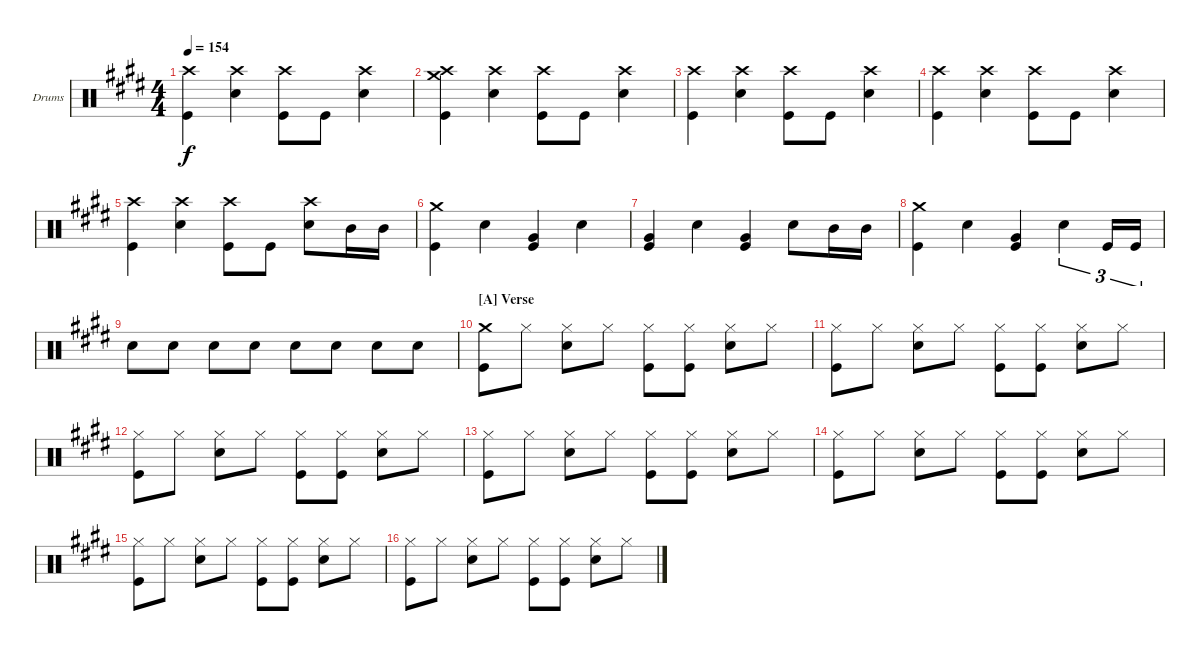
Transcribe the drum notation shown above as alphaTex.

\defaultSystemsLayout 4
\bracketExtendMode groupsimilarinstruments
\firstSystemTrackNameOrientation horizontal
\otherSystemsTrackNameOrientation horizontal
\track ("Jon Larsen" "Drums") {instrument percussion}
\staff {score}
\articulation defaults
\ts (4 4)
\tempo 154
\clef neutral
\scale
0.333333
\ks e
("Crash high (hit)" "Kick (hit)").4{dy f} ("Crash high (hit)" "Snare (hit) 2").4 ("Crash high (hit)" "Kick (hit)").8 "Kick (hit)".8 ("Crash high (hit)" "Snare (hit) 2").4 |
\scale
0.333333 ("Crash medium (hit)" "Crash high (hit)" "Kick (hit)").4 ("Crash high (hit)" "Snare (hit) 2").4 ("Crash high (hit)" "Kick (hit)").8 "Kick (hit)".8 ("Crash high (hit)" "Snare (hit) 2").4 |
\scale
0.333333 ("Crash high (hit)" "Kick (hit)").4 ("Crash high (hit)" "Snare (hit) 2").4 ("Crash high (hit)" "Kick (hit)").8 "Kick (hit)".8 ("Crash high (hit)" "Snare (hit) 2").4 |
\scale
0.333333 ("Crash high (hit)" "Kick (hit)").4 ("Crash high (hit)" "Snare (hit) 2").4 ("Crash high (hit)" "Kick (hit)").8 "Kick (hit)".8 ("Crash high (hit)" "Snare (hit) 2").4 |
\scale
0.333333 ("Crash high (hit)" "Kick (hit)").4 ("Crash high (hit)" "Snare (hit) 2").4 ("Crash high (hit)" "Kick (hit)").8 "Kick (hit)".8 ("Crash high (hit)" "Snare (hit) 2").8 "Mid Tom (hit)".16 "Mid Tom (hit)".16 |
\scale
0.333333 ("Crash medium (hit)" "Kick (hit)").4 "Snare (hit) 2".4 ("Very Low Tom (hit)" "Kick (hit)").4 "Snare (hit) 2".4 |
\scale
0.333333 ("Very Low Tom (hit)" "Kick (hit)").4 "Snare (hit) 2".4 ("Very Low Tom (hit)" "Kick (hit)").4 "Snare (hit) 2".8 "Mid Tom (hit)".16 "Mid Tom (hit)".16 |
\scale
0.333333 ("Crash medium (hit)" "Kick (hit)").4 "Snare (hit) 2".4 ("Very Low Tom (hit)" "Kick (hit)").4 "Snare (hit) 2".4{tu (3 2)} "Kick (hit)".16{tu (3 2)} "Kick (hit)".16{tu (3 2)} |
\scale
0.333333 "Snare (hit) 2".8 "Snare (hit) 2".8 "Snare (hit) 2".8 "Snare (hit) 2".8 "Snare (hit) 2".8 "Snare (hit) 2".8 "Snare (hit) 2".8 "Snare (hit) 2".8 |
\section ("A" "Verse")
\scale
0.333333 ("Crash medium (hit)" "Kick (hit)").8 "Hi-Hat (closed)".8 ("Hi-Hat (closed)" "Snare (hit) 2").8 "Hi-Hat (closed)".8 ("Hi-Hat (closed)" "Kick (hit)").8 ("Hi-Hat (closed)" "Kick (hit)").8 ("Hi-Hat (closed)" "Snare (hit) 2").8 "Hi-Hat (closed)".8 |
\scale
0.333333 ("Hi-Hat (closed)" "Kick (hit)").8 "Hi-Hat (closed)".8 ("Hi-Hat (closed)" "Snare (hit) 2").8 "Hi-Hat (closed)".8 ("Hi-Hat (closed)" "Kick (hit)").8 ("Hi-Hat (closed)" "Kick (hit)").8 ("Hi-Hat (closed)" "Snare (hit) 2").8 "Hi-Hat (closed)".8 |
\scale
0.333333 ("Hi-Hat (closed)" "Kick (hit)").8 "Hi-Hat (closed)".8 ("Hi-Hat (closed)" "Snare (hit) 2").8 "Hi-Hat (closed)".8 ("Hi-Hat (closed)" "Kick (hit)").8 ("Hi-Hat (closed)" "Kick (hit)").8 ("Hi-Hat (closed)" "Snare (hit) 2").8 "Hi-Hat (closed)".8 |
\scale
0.333333 ("Hi-Hat (closed)" "Kick (hit)").8 "Hi-Hat (closed)".8 ("Hi-Hat (closed)" "Snare (hit) 2").8 "Hi-Hat (closed)".8 ("Hi-Hat (closed)" "Kick (hit)").8 ("Hi-Hat (closed)" "Kick (hit)").8 ("Hi-Hat (closed)" "Snare (hit) 2").8 "Hi-Hat (closed)".8 |
\scale
0.333333 ("Hi-Hat (closed)" "Kick (hit)").8 "Hi-Hat (closed)".8 ("Hi-Hat (closed)" "Snare (hit) 2").8 "Hi-Hat (closed)".8 ("Hi-Hat (closed)" "Kick (hit)").8 ("Hi-Hat (closed)" "Kick (hit)").8 ("Hi-Hat (closed)" "Snare (hit) 2").8 "Hi-Hat (closed)".8 |
\scale
0.333333 ("Hi-Hat (closed)" "Kick (hit)").8 "Hi-Hat (closed)".8 ("Hi-Hat (closed)" "Snare (hit) 2").8 "Hi-Hat (closed)".8 ("Hi-Hat (closed)" "Kick (hit)").8 ("Hi-Hat (closed)" "Kick (hit)").8 ("Hi-Hat (closed)" "Snare (hit) 2").8 "Hi-Hat (closed)".8 |
\scale
0.333333 ("Hi-Hat (closed)" "Kick (hit)").8 "Hi-Hat (closed)".8 ("Hi-Hat (closed)" "Snare (hit) 2").8 "Hi-Hat (closed)".8 ("Hi-Hat (closed)" "Kick (hit)").8 ("Hi-Hat (closed)" "Kick (hit)").8 ("Hi-Hat (closed)" "Snare (hit) 2").8 "Hi-Hat (closed)".8
